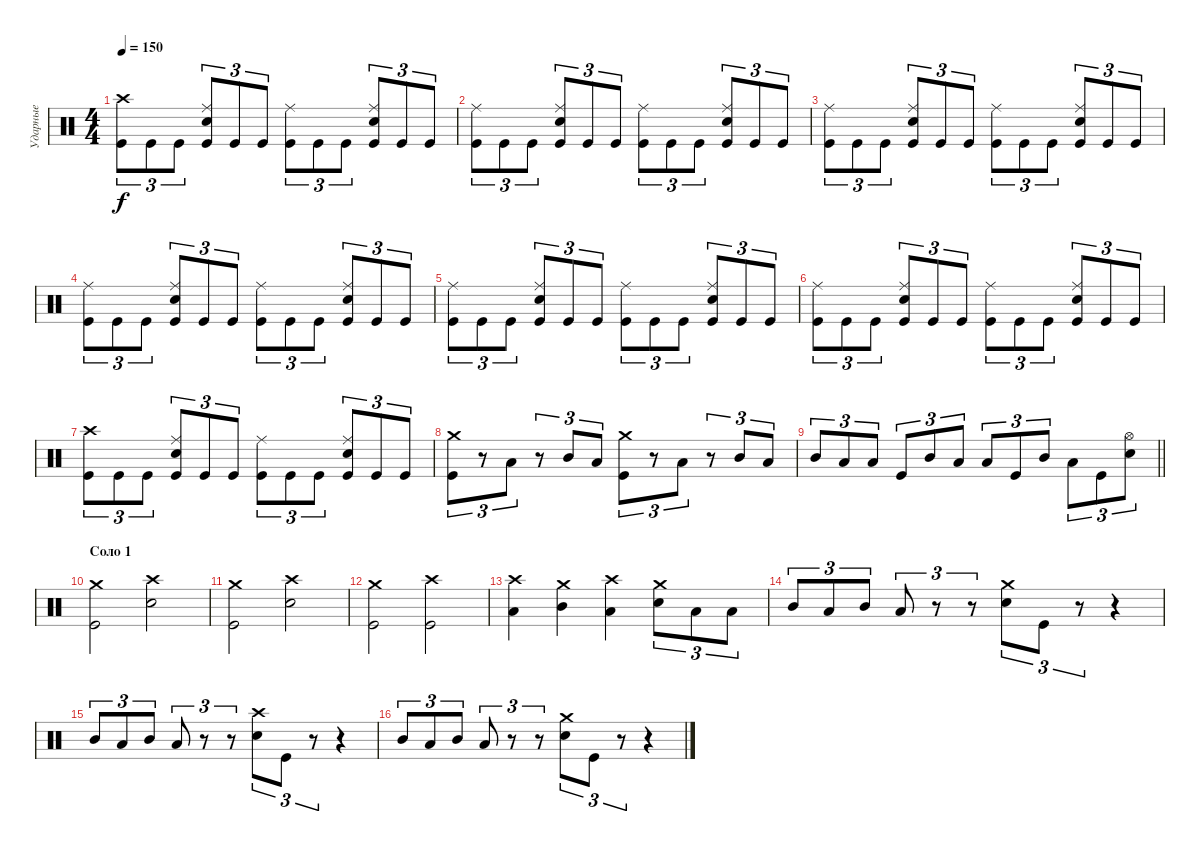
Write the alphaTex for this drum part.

\track ("Ударные" "Ударные") {instrument percussion}
\staff {score}
\articulation defaults
\ts (4 4)
\tempo 150
\clef neutral
\ks c
("Crash high (hit)" "Kick (hit)").8{tu (3 2) dy f} "Kick (hit)".8{tu (3 2)} "Kick (hit)".8{tu (3 2)} ("Ride (middle)" "Snare (hit) 2" "Kick (hit)").8{tu (3 2)} "Kick (hit)".8{tu (3 2)} "Kick (hit)".8{tu (3 2)} ("Ride (middle)" "Kick (hit)").8{tu (3 2)} "Kick (hit)".8{tu (3 2)} "Kick (hit)".8{tu (3 2)} ("Ride (middle)" "Snare (hit) 2" "Kick (hit)").8{tu (3 2)} "Kick (hit)".8{tu (3 2)} "Kick (hit)".8{tu (3 2)} |
("Ride (middle)" "Kick (hit)").8{tu (3 2)} "Kick (hit)".8{tu (3 2)} "Kick (hit)".8{tu (3 2)} ("Ride (middle)" "Snare (hit) 2" "Kick (hit)").8{tu (3 2)} "Kick (hit)".8{tu (3 2)} "Kick (hit)".8{tu (3 2)} ("Ride (middle)" "Kick (hit)").8{tu (3 2)} "Kick (hit)".8{tu (3 2)} "Kick (hit)".8{tu (3 2)} ("Ride (middle)" "Snare (hit) 2" "Kick (hit)").8{tu (3 2)} "Kick (hit)".8{tu (3 2)} "Kick (hit)".8{tu (3 2)} |
("Ride (middle)" "Kick (hit)").8{tu (3 2)} "Kick (hit)".8{tu (3 2)} "Kick (hit)".8{tu (3 2)} ("Ride (middle)" "Snare (hit) 2" "Kick (hit)").8{tu (3 2)} "Kick (hit)".8{tu (3 2)} "Kick (hit)".8{tu (3 2)} ("Ride (middle)" "Kick (hit)").8{tu (3 2)} "Kick (hit)".8{tu (3 2)} "Kick (hit)".8{tu (3 2)} ("Ride (middle)" "Snare (hit) 2" "Kick (hit)").8{tu (3 2)} "Kick (hit)".8{tu (3 2)} "Kick (hit)".8{tu (3 2)} |
("Ride (middle)" "Kick (hit)").8{tu (3 2)} "Kick (hit)".8{tu (3 2)} "Kick (hit)".8{tu (3 2)} ("Ride (middle)" "Snare (hit) 2" "Kick (hit)").8{tu (3 2)} "Kick (hit)".8{tu (3 2)} "Kick (hit)".8{tu (3 2)} ("Ride (middle)" "Kick (hit)").8{tu (3 2)} "Kick (hit)".8{tu (3 2)} "Kick (hit)".8{tu (3 2)} ("Ride (middle)" "Snare (hit) 2" "Kick (hit)").8{tu (3 2)} "Kick (hit)".8{tu (3 2)} "Kick (hit)".8{tu (3 2)} |
("Ride (middle)" "Kick (hit)").8{tu (3 2)} "Kick (hit)".8{tu (3 2)} "Kick (hit)".8{tu (3 2)} ("Ride (middle)" "Snare (hit) 2" "Kick (hit)").8{tu (3 2)} "Kick (hit)".8{tu (3 2)} "Kick (hit)".8{tu (3 2)} ("Ride (middle)" "Kick (hit)").8{tu (3 2)} "Kick (hit)".8{tu (3 2)} "Kick (hit)".8{tu (3 2)} ("Ride (middle)" "Snare (hit) 2" "Kick (hit)").8{tu (3 2)} "Kick (hit)".8{tu (3 2)} "Kick (hit)".8{tu (3 2)} |
("Ride (middle)" "Kick (hit)").8{tu (3 2)} "Kick (hit)".8{tu (3 2)} "Kick (hit)".8{tu (3 2)} ("Ride (middle)" "Snare (hit) 2" "Kick (hit)").8{tu (3 2)} "Kick (hit)".8{tu (3 2)} "Kick (hit)".8{tu (3 2)} ("Ride (middle)" "Kick (hit)").8{tu (3 2)} "Kick (hit)".8{tu (3 2)} "Kick (hit)".8{tu (3 2)} ("Ride (middle)" "Snare (hit) 2" "Kick (hit)").8{tu (3 2)} "Kick (hit)".8{tu (3 2)} "Kick (hit)".8{tu (3 2)} |
("Crash high (hit)" "Kick (hit)").8{tu (3 2)} "Kick (hit)".8{tu (3 2)} "Kick (hit)".8{tu (3 2)} ("Ride (middle)" "Snare (hit) 2" "Kick (hit)").8{tu (3 2)} "Kick (hit)".8{tu (3 2)} "Kick (hit)".8{tu (3 2)} ("Ride (middle)" "Kick (hit)").8{tu (3 2)} "Kick (hit)".8{tu (3 2)} "Kick (hit)".8{tu (3 2)} ("Ride (middle)" "Snare (hit) 2" "Kick (hit)").8{tu (3 2)} "Kick (hit)".8{tu (3 2)} "Kick (hit)".8{tu (3 2)} |
("Crash medium (hit)" "Kick (hit)").8{tu (3 2)} r.8{tu (3 2)} "Low Tom (hit)".8{tu (3 2)} r.8{tu (3 2)} "Mid Tom (hit)".8{tu (3 2)} "Low Tom (hit)".8{tu (3 2)} ("Crash medium (hit)" "Kick (hit)").8{tu (3 2)} r.8{tu (3 2)} "Low Tom (hit)".8{tu (3 2)} r.8{tu (3 2)} "Mid Tom (hit)".8{tu (3 2)} "Low Tom (hit)".8{tu (3 2)} |
\barLineRight lightlight "Mid Tom (hit)".8{tu (3 2)} "Low Tom (hit)".8{tu (3 2)} "Low Tom (hit)".8{tu (3 2)} "Kick (hit)".8{tu (3 2)} "Mid Tom (hit)".8{tu (3 2)} "Low Tom (hit)".8{tu (3 2)} "Low Tom (hit)".8{tu (3 2)} "Kick (hit)".8{tu (3 2)} "Mid Tom (hit)".8{tu (3 2)} "Low Tom (hit)".8{tu (3 2)} "Kick (hit)".8{tu (3 2)}
("Hi-Hat (open)" "Snare (hit) 2").8{tu (3 2)} |
\section ("" "Соло 1")
("Crash medium (hit)" "Kick (hit)").2 ("Crash high (hit)" "Snare (hit) 2").2 |
("Crash medium (hit)" "Kick (hit)").2 ("Crash high (hit)" "Snare (hit) 2").2 |
("Crash medium (hit)" "Kick (hit)").2 ("Crash high (hit)" "Kick (hit)").2 |
("Crash high (hit)" "Low Tom (hit)").4 ("Crash medium (hit)" "Mid Tom (hit)").4 ("Crash high (hit)" "Low Tom (hit)").4 ("Crash medium (hit)" "Snare (hit) 2").8{tu (3 2)} "Low Tom (hit)".8{tu (3 2)} "Low Tom (hit)".8{tu (3 2)} |
"Mid Tom (hit)".8{tu (3 2)} "Low Tom (hit)".8{tu (3 2)} "Mid Tom (hit)".8{tu (3 2)} "Low Tom (hit)".8{tu (3 2)} r.8{tu (3 2)} r.8{tu (3 2)} ("Crash medium (hit)" "Snare (hit) 2").8{tu (3 2)} "Kick (hit)".8{tu (3 2)} r.8{tu (3 2)} r.4 |
"Mid Tom (hit)".8{tu (3 2)} "Low Tom (hit)".8{tu (3 2)} "Mid Tom (hit)".8{tu (3 2)} "Low Tom (hit)".8{tu (3 2)} r.8{tu (3 2)} r.8{tu (3 2)} ("Crash high (hit)" "Snare (hit) 2").8{tu (3 2)} "Kick (hit)".8{tu (3 2)} r.8{tu (3 2)} r.4 |
"Mid Tom (hit)".8{tu (3 2)} "Low Tom (hit)".8{tu (3 2)} "Mid Tom (hit)".8{tu (3 2)} "Low Tom (hit)".8{tu (3 2)} r.8{tu (3 2)} r.8{tu (3 2)} ("Crash medium (hit)" "Snare (hit) 2").8{tu (3 2)} "Kick (hit)".8{tu (3 2)} r.8{tu (3 2)} r.4
